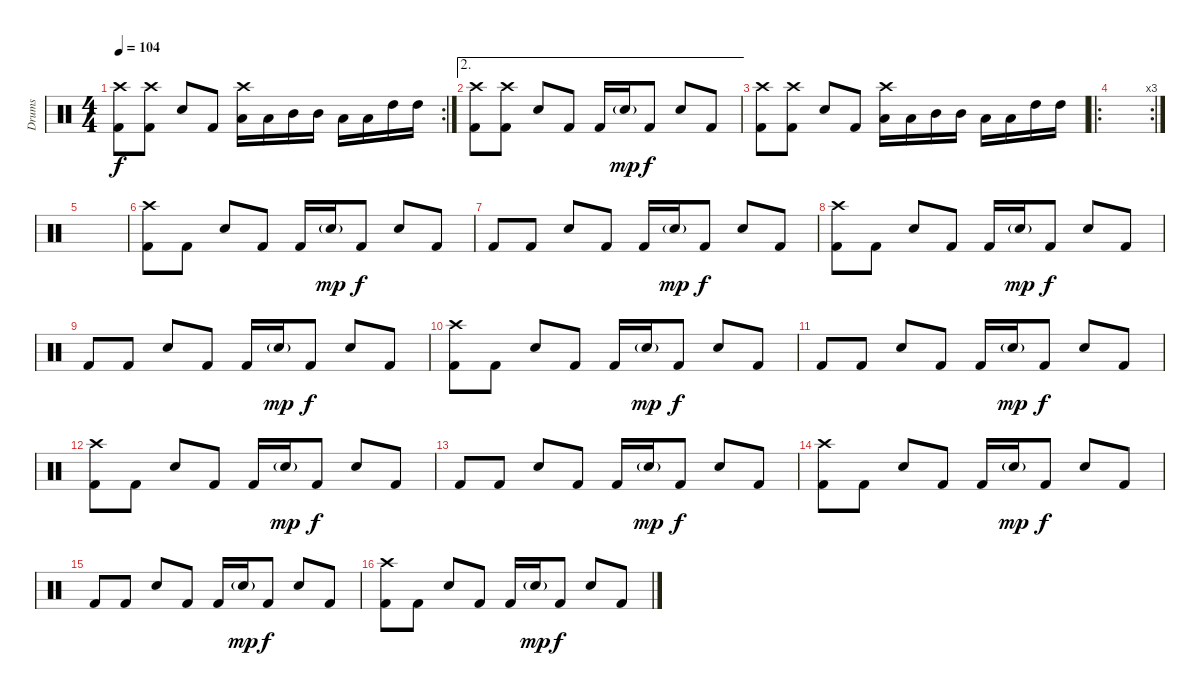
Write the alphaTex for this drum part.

\track ("Drums" "Drums") {instrument percussion}
\staff {score}
\articulation defaults
\rc 2
\ts (4 4)
\tempo 104
\clef neutral
\ks c
("Crash high (hit)" "Kick (hit) 2").8{dy f} ("Crash high (hit)" "Kick (hit) 2").8 "Snare (hit) 2".8 "Kick (hit) 2".8 ("Crash high (hit)" "Low Tom (hit)").16 "Low Tom (hit)".16 "Mid Tom (hit)".16 "Mid Tom (hit)".16 "Low Tom (hit)".16 "Low Tom (hit)".16 "High Tom (hit)".16 "High Tom (hit)".16 |
\ae 2
("Crash high (hit)" "Kick (hit) 2").8 ("Crash high (hit)" "Kick (hit) 2").8 "Snare (hit) 2".8 "Kick (hit) 2".8 "Kick (hit) 2".16 "Snare (hit) 2"{g}.16{dy mp} "Kick (hit) 2".8{dy f} "Snare (hit) 2".8 "Kick (hit) 2".8 |
("Crash high (hit)" "Kick (hit) 2").8 ("Crash high (hit)" "Kick (hit) 2").8 "Snare (hit) 2".8 "Kick (hit) 2".8 ("Crash high (hit)" "Low Tom (hit)").16 "Low Tom (hit)".16 "Mid Tom (hit)".16 "Mid Tom (hit)".16 "Low Tom (hit)".16 "Low Tom (hit)".16 "High Tom (hit)".16 "High Tom (hit)".16 |
\ro
\rc 3
|
|
("Crash high (hit)" "Kick (hit) 2").8 "Kick (hit) 2".8 "Snare (hit) 2".8 "Kick (hit) 2".8 "Kick (hit) 2".16 "Snare (hit) 2"{g}.16{dy mp} "Kick (hit) 2".8{dy f} "Snare (hit) 2".8 "Kick (hit) 2".8 |
"Kick (hit) 2".8 "Kick (hit) 2".8 "Snare (hit) 2".8 "Kick (hit) 2".8 "Kick (hit) 2".16 "Snare (hit) 2"{g}.16{dy mp} "Kick (hit) 2".8{dy f} "Snare (hit) 2".8 "Kick (hit) 2".8 |
("Crash high (hit)" "Kick (hit) 2").8 "Kick (hit) 2".8 "Snare (hit) 2".8 "Kick (hit) 2".8 "Kick (hit) 2".16 "Snare (hit) 2"{g}.16{dy mp} "Kick (hit) 2".8{dy f} "Snare (hit) 2".8 "Kick (hit) 2".8 |
"Kick (hit) 2".8 "Kick (hit) 2".8 "Snare (hit) 2".8 "Kick (hit) 2".8 "Kick (hit) 2".16 "Snare (hit) 2"{g}.16{dy mp} "Kick (hit) 2".8{dy f} "Snare (hit) 2".8 "Kick (hit) 2".8 |
("Crash high (hit)" "Kick (hit) 2").8 "Kick (hit) 2".8 "Snare (hit) 2".8 "Kick (hit) 2".8 "Kick (hit) 2".16 "Snare (hit) 2"{g}.16{dy mp} "Kick (hit) 2".8{dy f} "Snare (hit) 2".8 "Kick (hit) 2".8 |
"Kick (hit) 2".8 "Kick (hit) 2".8 "Snare (hit) 2".8 "Kick (hit) 2".8 "Kick (hit) 2".16 "Snare (hit) 2"{g}.16{dy mp} "Kick (hit) 2".8{dy f} "Snare (hit) 2".8 "Kick (hit) 2".8 |
("Crash high (hit)" "Kick (hit) 2").8 "Kick (hit) 2".8 "Snare (hit) 2".8 "Kick (hit) 2".8 "Kick (hit) 2".16 "Snare (hit) 2"{g}.16{dy mp} "Kick (hit) 2".8{dy f} "Snare (hit) 2".8 "Kick (hit) 2".8 |
"Kick (hit) 2".8 "Kick (hit) 2".8 "Snare (hit) 2".8 "Kick (hit) 2".8 "Kick (hit) 2".16 "Snare (hit) 2"{g}.16{dy mp} "Kick (hit) 2".8{dy f} "Snare (hit) 2".8 "Kick (hit) 2".8 |
("Crash high (hit)" "Kick (hit) 2").8 "Kick (hit) 2".8 "Snare (hit) 2".8 "Kick (hit) 2".8 "Kick (hit) 2".16 "Snare (hit) 2"{g}.16{dy mp} "Kick (hit) 2".8{dy f} "Snare (hit) 2".8 "Kick (hit) 2".8 |
"Kick (hit) 2".8 "Kick (hit) 2".8 "Snare (hit) 2".8 "Kick (hit) 2".8 "Kick (hit) 2".16 "Snare (hit) 2"{g}.16{dy mp} "Kick (hit) 2".8{dy f} "Snare (hit) 2".8 "Kick (hit) 2".8 |
("Crash high (hit)" "Kick (hit) 2").8 "Kick (hit) 2".8 "Snare (hit) 2".8 "Kick (hit) 2".8 "Kick (hit) 2".16 "Snare (hit) 2"{g}.16{dy mp} "Kick (hit) 2".8{dy f} "Snare (hit) 2".8 "Kick (hit) 2".8
